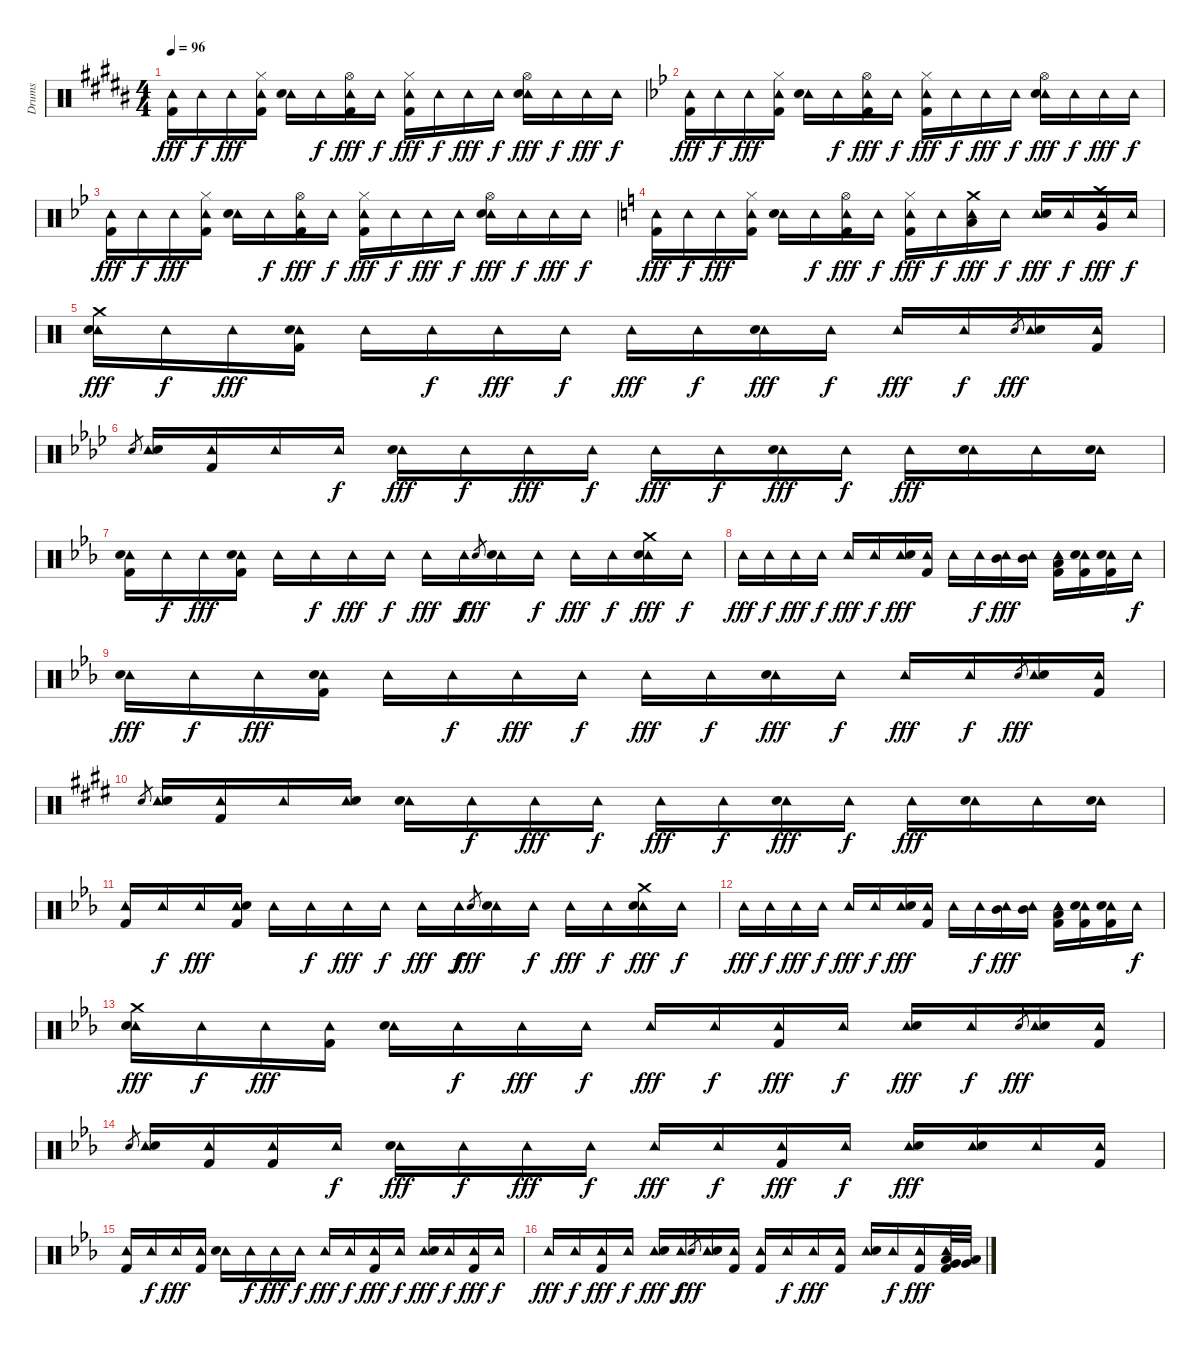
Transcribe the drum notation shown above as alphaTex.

\track ("Drums" "Drums") {instrument percussion}
\staff {score}
\articulation defaults
\ts (4 4)
\tempo 96
\clef neutral
\ks b
("Tambourine (hit)" "Kick (hit) 2").16{dy fff} "Tambourine (hit)".16{dy f} "Tambourine (hit)".16{dy fff} ("Tambourine (hit)" "Hi-Hat (closed)" "Kick (hit) 2").16 ("Tambourine (hit)" "Snare (hit) 2").16 "Tambourine (hit)".16{dy f} ("Tambourine (hit)" "Hi-Hat (open)" "Kick (hit) 2").16{dy fff} "Tambourine (hit)".16{dy f} ("Tambourine (hit)" "Hi-Hat (closed)" "Kick (hit) 2").16{dy fff} "Tambourine (hit)".16{dy f} "Tambourine (hit)".16{dy fff} "Tambourine (hit)".16{dy f} ("Tambourine (hit)" "Hi-Hat (open)" "Snare (hit) 2").16{dy fff} "Tambourine (hit)".16{dy f} "Tambourine (hit)".16{dy fff} "Tambourine (hit)".16{dy f} |
\ks bb
("Tambourine (hit)" "Kick (hit) 2").16{dy fff} "Tambourine (hit)".16{dy f} "Tambourine (hit)".16{dy fff} ("Tambourine (hit)" "Hi-Hat (closed)" "Kick (hit) 2").16 ("Tambourine (hit)" "Snare (hit) 2").16 "Tambourine (hit)".16{dy f} ("Tambourine (hit)" "Hi-Hat (open)" "Kick (hit) 2").16{dy fff} "Tambourine (hit)".16{dy f} ("Tambourine (hit)" "Hi-Hat (closed)" "Kick (hit) 2").16{dy fff} "Tambourine (hit)".16{dy f} "Tambourine (hit)".16{dy fff} "Tambourine (hit)".16{dy f} ("Tambourine (hit)" "Hi-Hat (open)" "Snare (hit) 2").16{dy fff} "Tambourine (hit)".16{dy f} "Tambourine (hit)".16{dy fff} "Tambourine (hit)".16{dy f} |
("Tambourine (hit)" "Kick (hit) 2").16{dy fff} "Tambourine (hit)".16{dy f} "Tambourine (hit)".16{dy fff} ("Tambourine (hit)" "Hi-Hat (closed)" "Kick (hit) 2").16 ("Tambourine (hit)" "Snare (hit) 2").16 "Tambourine (hit)".16{dy f} ("Tambourine (hit)" "Hi-Hat (open)" "Kick (hit) 2").16{dy fff} "Tambourine (hit)".16{dy f} ("Tambourine (hit)" "Hi-Hat (closed)" "Kick (hit) 2").16{dy fff} "Tambourine (hit)".16{dy f} "Tambourine (hit)".16{dy fff} "Tambourine (hit)".16{dy f} ("Tambourine (hit)" "Hi-Hat (open)" "Snare (hit) 2").16{dy fff} "Tambourine (hit)".16{dy f} "Tambourine (hit)".16{dy fff} "Tambourine (hit)".16{dy f} |
\ks c
("Tambourine (hit)" "Kick (hit) 2").16{dy fff} "Tambourine (hit)".16{dy f} "Tambourine (hit)".16{dy fff} ("Tambourine (hit)" "Hi-Hat (closed)" "Kick (hit) 2").16 ("Tambourine (hit)" "Snare (hit) 2").16 "Tambourine (hit)".16{dy f} ("Tambourine (hit)" "Hi-Hat (open)" "Kick (hit) 2").16{dy fff} "Tambourine (hit)".16{dy f} ("Tambourine (hit)" "Hi-Hat (closed)" "Kick (hit) 2").16{dy fff} "Tambourine (hit)".16{dy f} ("Tambourine (hit)" "Crash medium (hit)" "Low Tom (hit)").16{dy fff} "Tambourine (hit)".16{dy f} ("Tambourine (hit)" "Snare (hit) 2").16{dy fff} "Tambourine (hit)".16{dy f} ("Tambourine (hit)" "Crash high (hit)" "Very Low Tom (hit)").16{dy fff} "Tambourine (hit)".16{dy f} |
("Tambourine (hit)" "Crash medium (hit)" "Snare (hit) 2").16{dy fff} "Tambourine (hit)".16{dy f} "Tambourine (hit)".16{dy fff} ("Tambourine (hit)" "Electric Snare (hit)" "Kick (hit) 2").16 "Tambourine (hit)".16 "Tambourine (hit)".16{dy f} "Tambourine (hit)".16{dy fff} "Tambourine (hit)".16{dy f} "Tambourine (hit)".16{dy fff} "Tambourine (hit)".16{dy f} ("Tambourine (hit)" "Electric Snare (hit)").16{dy fff} "Tambourine (hit)".16{dy f} "Tambourine (hit)".16{dy fff} "Tambourine (hit)".16{dy f} "Snare (hit) 2".8{gr dy fff} ("Tambourine (hit)" "Snare (hit) 2").16 ("Tambourine (hit)" "Kick (hit) 2").16 |
\ks ab "Snare (hit) 2".8{gr}
("Tambourine (hit)" "Snare (hit) 2").16 ("Tambourine (hit)" "Kick (hit) 2").16 "Tambourine (hit)".16 "Tambourine (hit)".16{dy f} ("Tambourine (hit)" "Electric Snare (hit)").16{dy fff} "Tambourine (hit)".16{dy f} "Tambourine (hit)".16{dy fff} "Tambourine (hit)".16{dy f} "Tambourine (hit)".16{dy fff} "Tambourine (hit)".16{dy f} ("Tambourine (hit)" "Snare (hit) 2").16{dy fff} "Tambourine (hit)".16{dy f} "Tambourine (hit)".16{dy fff} ("Tambourine (hit)" "Snare (hit) 2").16 "Tambourine (hit)".16 ("Tambourine (hit)" "Snare (hit) 2").16 |
\ks eb
("Tambourine (hit)" "Electric Snare (hit)" "Kick (hit) 2").16 "Tambourine (hit)".16{dy f} "Tambourine (hit)".16{dy fff} ("Tambourine (hit)" "Electric Snare (hit)" "Kick (hit) 2").16 "Tambourine (hit)".16 "Tambourine (hit)".16{dy f} "Tambourine (hit)".16{dy fff} "Tambourine (hit)".16{dy f} "Tambourine (hit)".16{dy fff} "Tambourine (hit)".16{dy f} "Snare (hit) 2".8{gr dy fff} ("Tambourine (hit)" "Snare (hit) 2").16 "Tambourine (hit)".16{dy f} "Tambourine (hit)".16{dy fff} "Tambourine (hit)".16{dy f} ("Tambourine (hit)" "Crash medium (hit)" "Snare (hit) 2").16{dy fff} "Tambourine (hit)".16{dy f} |
"Tambourine (hit)".16{dy fff} "Tambourine (hit)".16{dy f} "Tambourine (hit)".16{dy fff} "Tambourine (hit)".16{dy f} "Tambourine (hit)".16{dy fff} "Tambourine (hit)".16{dy f} ("Tambourine (hit)" "Snare (hit) 2").16{dy fff} ("Tambourine (hit)" "Kick (hit) 2").16 "Tambourine (hit)".16 "Tambourine (hit)".16{dy f} ("Tambourine (hit)" "Mid Tom (hit)").16{dy fff} ("Tambourine (hit)" "Mid Tom (hit)").16 ("Tambourine (hit)" "Low Tom (hit)" "Kick (hit) 2").16 ("Tambourine (hit)" "Snare (hit) 2" "Kick (hit) 2").16 ("Tambourine (hit)" "Snare (hit) 2" "Kick (hit) 2").16 "Tambourine (hit)".16{dy f} |
("Tambourine (hit)" "Snare (hit) 2").16{dy fff} "Tambourine (hit)".16{dy f} "Tambourine (hit)".16{dy fff} ("Tambourine (hit)" "Electric Snare (hit)" "Kick (hit) 2").16 "Tambourine (hit)".16 "Tambourine (hit)".16{dy f} "Tambourine (hit)".16{dy fff} "Tambourine (hit)".16{dy f} "Tambourine (hit)".16{dy fff} "Tambourine (hit)".16{dy f} ("Tambourine (hit)" "Electric Snare (hit)").16{dy fff} "Tambourine (hit)".16{dy f} "Tambourine (hit)".16{dy fff} "Tambourine (hit)".16{dy f} "Snare (hit) 2".8{gr dy fff} ("Tambourine (hit)" "Snare (hit) 2").16 ("Tambourine (hit)" "Kick (hit) 2").16 |
\ks e "Snare (hit) 2".8{gr}
("Tambourine (hit)" "Snare (hit) 2").16 ("Tambourine (hit)" "Kick (hit) 2").16 "Tambourine (hit)".16 ("Tambourine (hit)" "Electric Snare (hit)").16 ("Tambourine (hit)" "Electric Snare (hit)").16 "Tambourine (hit)".16{dy f} "Tambourine (hit)".16{dy fff} "Tambourine (hit)".16{dy f} "Tambourine (hit)".16{dy fff} "Tambourine (hit)".16{dy f} ("Tambourine (hit)" "Snare (hit) 2").16{dy fff} "Tambourine (hit)".16{dy f} "Tambourine (hit)".16{dy fff} ("Tambourine (hit)" "Snare (hit) 2").16 "Tambourine (hit)".16 ("Tambourine (hit)" "Snare (hit) 2").16 |
\ks eb
("Tambourine (hit)" "Kick (hit) 2").16 "Tambourine (hit)".16{dy f} "Tambourine (hit)".16{dy fff} ("Tambourine (hit)" "Snare (hit) 2" "Kick (hit) 2").16 "Tambourine (hit)".16 "Tambourine (hit)".16{dy f} "Tambourine (hit)".16{dy fff} "Tambourine (hit)".16{dy f} "Tambourine (hit)".16{dy fff} "Tambourine (hit)".16{dy f} "Snare (hit) 2".8{gr dy fff} ("Tambourine (hit)" "Snare (hit) 2").16 "Tambourine (hit)".16{dy f} "Tambourine (hit)".16{dy fff} "Tambourine (hit)".16{dy f} ("Tambourine (hit)" "Crash medium (hit)" "Snare (hit) 2").16{dy fff} "Tambourine (hit)".16{dy f} |
"Tambourine (hit)".16{dy fff} "Tambourine (hit)".16{dy f} "Tambourine (hit)".16{dy fff} "Tambourine (hit)".16{dy f} "Tambourine (hit)".16{dy fff} "Tambourine (hit)".16{dy f} ("Tambourine (hit)" "Snare (hit) 2").16{dy fff} ("Tambourine (hit)" "Kick (hit) 2").16 "Tambourine (hit)".16 "Tambourine (hit)".16{dy f} ("Tambourine (hit)" "Mid Tom (hit)").16{dy fff} ("Tambourine (hit)" "Mid Tom (hit)").16 ("Tambourine (hit)" "Low Tom (hit)" "Kick (hit) 2").16 ("Tambourine (hit)" "Snare (hit) 2" "Kick (hit) 2").16 ("Tambourine (hit)" "Snare (hit) 2" "Kick (hit) 2").16 "Tambourine (hit)".16{dy f} |
("Tambourine (hit)" "Crash medium (hit)" "Snare (hit) 2").16{dy fff} "Tambourine (hit)".16{dy f} "Tambourine (hit)".16{dy fff} ("Tambourine (hit)" "Kick (hit) 2").16 ("Tambourine (hit)" "Snare (hit) 2").16 "Tambourine (hit)".16{dy f} "Tambourine (hit)".16{dy fff} "Tambourine (hit)".16{dy f} "Tambourine (hit)".16{dy fff} "Tambourine (hit)".16{dy f} ("Tambourine (hit)" "Kick (hit) 2").16{dy fff} "Tambourine (hit)".16{dy f} ("Tambourine (hit)" "Snare (hit) 2").16{dy fff} "Tambourine (hit)".16{dy f} "Snare (hit) 2".8{gr dy fff} ("Tambourine (hit)" "Snare (hit) 2").16 ("Tambourine (hit)" "Kick (hit) 2").16 |
"Snare (hit) 2".8{gr} ("Tambourine (hit)" "Snare (hit) 2").16 ("Tambourine (hit)" "Kick (hit) 2").16 ("Tambourine (hit)" "Kick (hit) 2").16 "Tambourine (hit)".16{dy f} ("Tambourine (hit)" "Snare (hit) 2").16{dy fff} "Tambourine (hit)".16{dy f} "Tambourine (hit)".16{dy fff} "Tambourine (hit)".16{dy f} "Tambourine (hit)".16{dy fff} "Tambourine (hit)".16{dy f} ("Tambourine (hit)" "Kick (hit) 2").16{dy fff} "Tambourine (hit)".16{dy f} ("Tambourine (hit)" "Snare (hit) 2").16{dy fff} ("Tambourine (hit)" "Snare (hit) 2").16 "Tambourine (hit)".16 ("Tambourine (hit)" "Kick (hit) 2").16 |
("Tambourine (hit)" "Kick (hit) 2").16 "Tambourine (hit)".16{dy f} "Tambourine (hit)".16{dy fff} ("Tambourine (hit)" "Kick (hit) 2").16 ("Tambourine (hit)" "Snare (hit) 2").16 "Tambourine (hit)".16{dy f} "Tambourine (hit)".16{dy fff} "Tambourine (hit)".16{dy f} "Tambourine (hit)".16{dy fff} "Tambourine (hit)".16{dy f} ("Tambourine (hit)" "Kick (hit) 2").16{dy fff} "Tambourine (hit)".16{dy f} ("Tambourine (hit)" "Snare (hit) 2").16{dy fff} "Tambourine (hit)".16{dy f} ("Tambourine (hit)" "Kick (hit) 2").16{dy fff} "Tambourine (hit)".16{dy f} |
"Tambourine (hit)".16{dy fff} "Tambourine (hit)".16{dy f} ("Tambourine (hit)" "Kick (hit) 2").16{dy fff} "Tambourine (hit)".16{dy f} ("Tambourine (hit)" "Snare (hit) 2").16{dy fff} "Tambourine (hit)".16{dy f} "Snare (hit) 2".8{gr dy fff} ("Tambourine (hit)" "Snare (hit) 2").16 ("Tambourine (hit)" "Kick (hit) 2").16 ("Tambourine (hit)" "Kick (hit) 2").16 "Tambourine (hit)".16{dy f} "Tambourine (hit)".16{dy fff} ("Tambourine (hit)" "Kick (hit) 2").16 ("Tambourine (hit)" "Snare (hit) 2").16 "Tambourine (hit)".16{dy f} ("Tambourine (hit)" "Kick (hit) 2").16{dy fff} ("Tambourine (hit)" "Very Low Tom (hit)" "Low Floor Tom (hit)" "Kick (hit) 2").32 ("Very Low Tom (hit)" "Low Floor Tom (hit)").32
